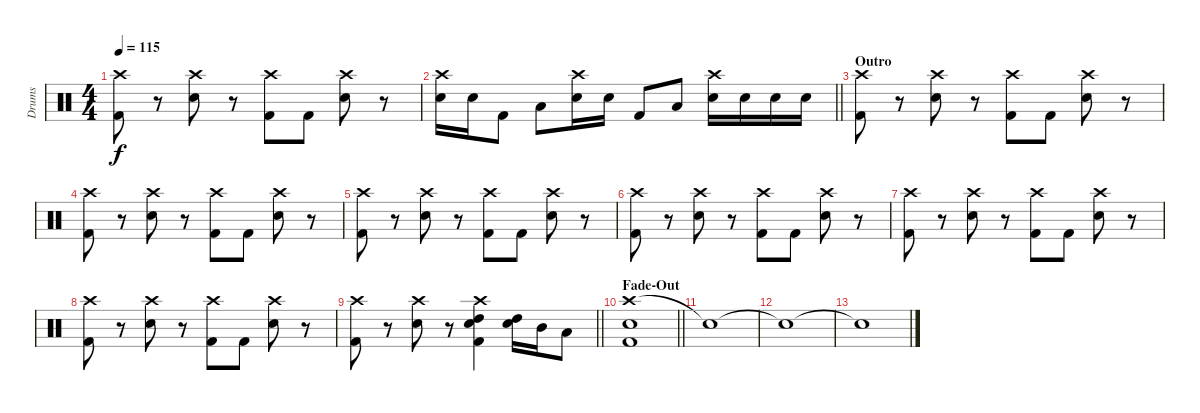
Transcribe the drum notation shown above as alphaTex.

\track ("Drums" "Drums") {instrument percussion}
\staff {score}
\articulation defaults
\ts (4 4)
\tempo 115
\clef neutral
\ks c
("Crash high (hit)" "Kick (hit) 2").8{dy f} r.8 ("Crash high (hit)" "Snare (hit) 2").8 r.8 ("Crash high (hit)" "Kick (hit) 2").8 "Kick (hit) 2".8 ("Crash high (hit)" "Snare (hit) 2").8 r.8 |
\barLineRight lightlight
("Crash high (hit)" "Snare (hit) 2").16 "Snare (hit) 2".16 "Kick (hit) 2".8 "Low Tom (hit)".8 ("Crash high (hit)" "Snare (hit) 2").16 "Snare (hit) 2".16 "Kick (hit) 2".8 "Low Tom (hit)".8 ("Crash high (hit)" "Snare (hit) 2").16 "Snare (hit) 2".16 "Snare (hit) 2".16 "Snare (hit) 2".16 |
\section ("" "Outro")
("Crash high (hit)" "Kick (hit) 2").8 r.8 ("Crash high (hit)" "Snare (hit) 2").8 r.8 ("Crash high (hit)" "Kick (hit) 2").8 "Kick (hit) 2".8 ("Crash high (hit)" "Snare (hit) 2").8 r.8 |
("Crash high (hit)" "Kick (hit) 2").8 r.8 ("Crash high (hit)" "Snare (hit) 2").8 r.8 ("Crash high (hit)" "Kick (hit) 2").8 "Kick (hit) 2".8 ("Crash high (hit)" "Snare (hit) 2").8 r.8 |
("Crash high (hit)" "Kick (hit) 2").8 r.8 ("Crash high (hit)" "Snare (hit) 2").8 r.8 ("Crash high (hit)" "Kick (hit) 2").8 "Kick (hit) 2".8 ("Crash high (hit)" "Snare (hit) 2").8 r.8 |
("Crash high (hit)" "Kick (hit) 2").8 r.8 ("Crash high (hit)" "Snare (hit) 2").8 r.8 ("Crash high (hit)" "Kick (hit) 2").8 "Kick (hit) 2".8 ("Crash high (hit)" "Snare (hit) 2").8 r.8 |
("Crash high (hit)" "Kick (hit) 2").8 r.8 ("Crash high (hit)" "Snare (hit) 2").8 r.8 ("Crash high (hit)" "Kick (hit) 2").8 "Kick (hit) 2".8 ("Crash high (hit)" "Snare (hit) 2").8 r.8 |
("Crash high (hit)" "Kick (hit) 2").8 r.8 ("Crash high (hit)" "Snare (hit) 2").8 r.8 ("Crash high (hit)" "Kick (hit) 2").8 "Kick (hit) 2".8 ("Crash high (hit)" "Snare (hit) 2").8 r.8 |
\barLineRight lightlight
("Crash high (hit)" "Kick (hit) 2").8 r.8 ("Crash high (hit)" "Snare (hit) 2").8 r.8 ("Crash high (hit)" "Snare (hit) 2" "High Tom (hit)" "Kick (hit) 2").4 ("Snare (hit) 2" "High Tom (hit)").16 "Mid Tom (hit)".16 "Low Tom (hit)".8 |
\section ("" "Fade-Out")
\barLineRight lightlight
("Crash high (hit)" "Snare (hit) 2" "Kick (hit) 2").1 |
"Snare (hit)"{t}.1 |
"Snare (hit)"{t}.1 |
"Snare (hit)"{t}.1
